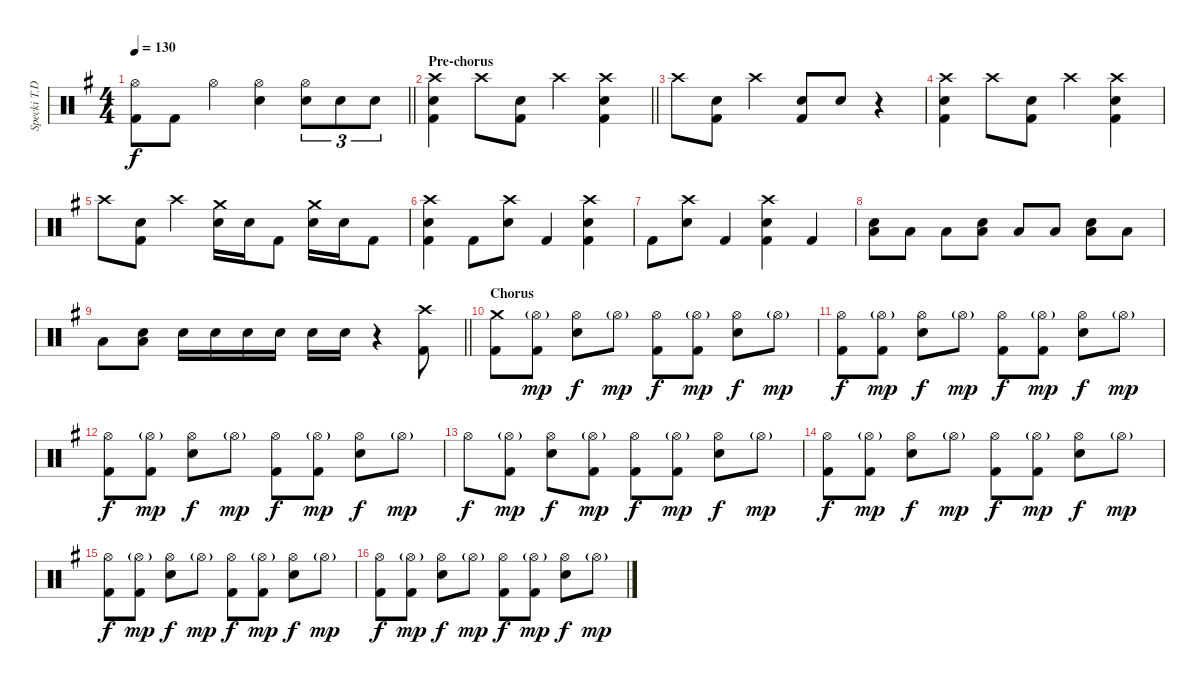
\track ("Specki T.D. (Drums)" "Specki T.D") {instrument percussion}
\staff {score}
\articulation defaults
\ts (4 4)
\tempo 130
\clef neutral
\barLineRight lightlight
\ks g
("Hi-Hat (open)" "Kick (hit) 2").8{dy f} "Kick (hit) 2".8 "Hi-Hat (open)".4 ("Hi-Hat (open)" "Snare (hit) 2").4 ("Hi-Hat (open)" "Snare (hit) 2").8{tu (3 2)} "Snare (hit) 2".8{tu (3 2)} "Snare (hit) 2".8{tu (3 2)} |
\section ("" "Pre-chorus")
\barLineRight lightlight
("Crash high (hit)" "Snare (hit) 2" "Kick (hit) 2").4 "Crash high (hit)".8 ("Snare (hit) 2" "Kick (hit) 2").8 "Crash high (hit)".4 ("Crash high (hit)" "Snare (hit) 2" "Kick (hit) 2").4 |
\section ("" "")
"Crash high (hit)".8 ("Snare (hit) 2" "Kick (hit) 2").8 "Crash high (hit)".4 ("Snare (hit) 2" "Kick (hit) 2").8 "Snare (hit) 2".8 r.4 |
("Crash high (hit)" "Snare (hit) 2" "Kick (hit) 2").4 "Crash high (hit)".8 ("Snare (hit) 2" "Kick (hit) 2").8 "Crash high (hit)".4 ("Crash high (hit)" "Snare (hit) 2" "Kick (hit) 2").4 |
"Crash high (hit)".8 ("Snare (hit) 2" "Kick (hit) 2").8 "Crash high (hit)".4 ("Crash medium (hit)" "Snare (hit) 2").16 "Snare (hit) 2".16 "Kick (hit) 2".8 ("Crash medium (hit)" "Snare (hit) 2").16 "Snare (hit) 2".16 "Kick (hit) 2".8 |
("Crash high (hit)" "Snare (hit) 2" "Kick (hit) 2").4 "Kick (hit) 2".8 ("Crash high (hit)" "Snare (hit) 2").8 "Kick (hit) 2".4 ("Crash high (hit)" "Snare (hit) 2" "Kick (hit) 2").4 |
"Kick (hit) 2".8 ("Crash high (hit)" "Snare (hit) 2").8 "Kick (hit) 2".4 ("Crash high (hit)" "Snare (hit) 2" "Kick (hit) 2").4 "Kick (hit) 2".4 |
("Snare (hit) 2" "Low Floor Tom (hit)").8 "Low Floor Tom (hit)".8 "Low Floor Tom (hit)".8 ("Snare (hit) 2" "Low Floor Tom (hit)").8 "Low Floor Tom (hit)".8 "Low Floor Tom (hit)".8 ("Snare (hit) 2" "Low Floor Tom (hit)").8 "Low Floor Tom (hit)".8 |
\barLineRight lightlight "Low Floor Tom (hit)".8
("Snare (hit) 2" "Low Floor Tom (hit)").8 "Snare (hit) 2".16 "Snare (hit) 2".16 "Snare (hit) 2".16 "Snare (hit) 2".16 "Snare (hit) 2".16 "Snare (hit) 2".16 r.4 ("Crash high (hit)" "Kick (hit) 2").8 |
\section ("" "Chorus")
("Crash medium (hit)" "Kick (hit) 2").8 ("Hi-Hat (open)"{g} "Kick (hit) 2").8{dy mp} ("Hi-Hat (open)" "Snare (hit) 2").8{dy f} "Hi-Hat (open)"{g}.8{dy mp} ("Hi-Hat (open)" "Kick (hit) 2").8{dy f} ("Hi-Hat (open)"{g} "Kick (hit) 2").8{dy mp} ("Hi-Hat (open)" "Snare (hit) 2").8{dy f} "Hi-Hat (open)"{g}.8{dy mp} |
("Hi-Hat (open)" "Kick (hit) 2").8{dy f} ("Hi-Hat (open)"{g} "Kick (hit) 2").8{dy mp} ("Hi-Hat (open)" "Snare (hit) 2").8{dy f} "Hi-Hat (open)"{g}.8{dy mp} ("Hi-Hat (open)" "Kick (hit) 2").8{dy f} ("Hi-Hat (open)"{g} "Kick (hit) 2").8{dy mp} ("Hi-Hat (open)" "Snare (hit) 2").8{dy f} "Hi-Hat (open)"{g}.8{dy mp} |
("Hi-Hat (open)" "Kick (hit) 2").8{dy f} ("Hi-Hat (open)"{g} "Kick (hit) 2").8{dy mp} ("Hi-Hat (open)" "Snare (hit) 2").8{dy f} "Hi-Hat (open)"{g}.8{dy mp} ("Hi-Hat (open)" "Kick (hit) 2").8{dy f} ("Hi-Hat (open)"{g} "Kick (hit) 2").8{dy mp} ("Hi-Hat (open)" "Snare (hit) 2").8{dy f} "Hi-Hat (open)"{g}.8{dy mp} |
"Hi-Hat (open)".8{dy f} ("Hi-Hat (open)"{g} "Kick (hit) 2").8{dy mp} ("Hi-Hat (open)" "Snare (hit) 2").8{dy f} ("Hi-Hat (open)"{g} "Kick (hit) 2").8{dy mp} ("Hi-Hat (open)" "Kick (hit) 2").8{dy f} ("Hi-Hat (open)"{g} "Kick (hit) 2").8{dy mp} ("Hi-Hat (open)" "Snare (hit) 2").8{dy f} "Hi-Hat (open)"{g}.8{dy mp} |
("Hi-Hat (open)" "Kick (hit) 2").8{dy f} ("Hi-Hat (open)"{g} "Kick (hit) 2").8{dy mp} ("Hi-Hat (open)" "Snare (hit) 2").8{dy f} "Hi-Hat (open)"{g}.8{dy mp} ("Hi-Hat (open)" "Kick (hit) 2").8{dy f} ("Hi-Hat (open)"{g} "Kick (hit) 2").8{dy mp} ("Hi-Hat (open)" "Snare (hit) 2").8{dy f} "Hi-Hat (open)"{g}.8{dy mp} |
("Hi-Hat (open)" "Kick (hit) 2").8{dy f} ("Hi-Hat (open)"{g} "Kick (hit) 2").8{dy mp} ("Hi-Hat (open)" "Snare (hit) 2").8{dy f} "Hi-Hat (open)"{g}.8{dy mp} ("Hi-Hat (open)" "Kick (hit) 2").8{dy f} ("Hi-Hat (open)"{g} "Kick (hit) 2").8{dy mp} ("Hi-Hat (open)" "Snare (hit) 2").8{dy f} "Hi-Hat (open)"{g}.8{dy mp} |
("Hi-Hat (open)" "Kick (hit) 2").8{dy f} ("Hi-Hat (open)"{g} "Kick (hit) 2").8{dy mp} ("Hi-Hat (open)" "Snare (hit) 2").8{dy f} "Hi-Hat (open)"{g}.8{dy mp} ("Hi-Hat (open)" "Kick (hit) 2").8{dy f} ("Hi-Hat (open)"{g} "Kick (hit) 2").8{dy mp} ("Hi-Hat (open)" "Snare (hit) 2").8{dy f} "Hi-Hat (open)"{g}.8{dy mp}
